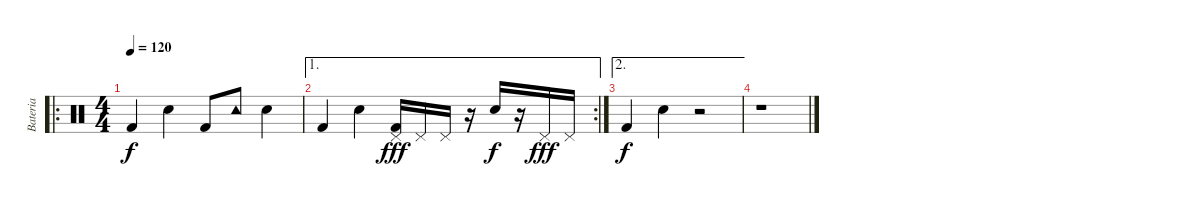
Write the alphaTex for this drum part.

\track ("Bateria" "Bateria") {instrument percussion}
\staff {score}
\articulation defaults
\ro
\ts (4 4)
\tempo 120
\clef neutral
\ks c "Kick (hit) 2".4{dy f} "Electric Snare (hit)".4 "Kick (hit) 2".8 "Tambourine (hit)".8 "Electric Snare (hit)".4
|
\ae 1
\rc 2 "Kick (hit) 2".4 "Electric Snare (hit)".4
("Pedal Hi-Hat (hit)" "Kick (hit) 2").16{dy fff} "Pedal Hi-Hat (hit)".16 "Pedal Hi-Hat (hit)".16 r.16 "Electric Snare (hit)".16{dy f} r.16 "Pedal Hi-Hat (hit)".16{dy fff} "Pedal Hi-Hat (hit)".16 |
\ae 2 "Kick (hit) 2".4{dy f} "Electric Snare (hit)".4
r.2 |
r.1
